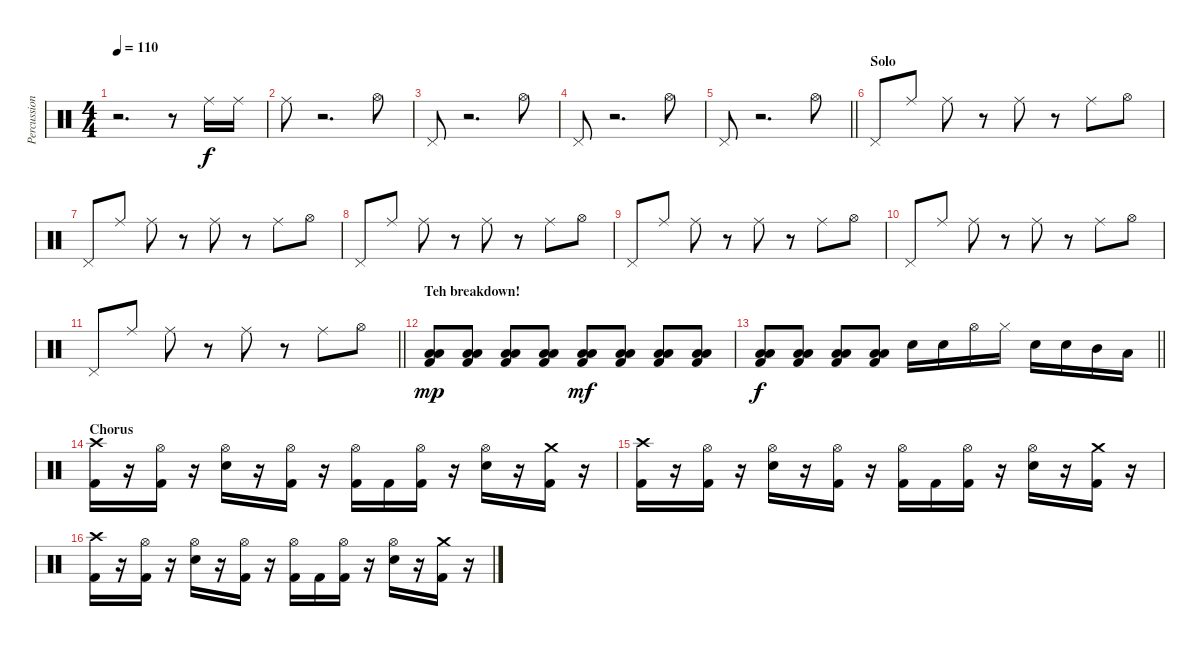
\track ("Percussion" "Percussion") {instrument percussion}
\staff {score}
\articulation defaults
\ts (4 4)
\tempo 110
\clef neutral
\ks c
r.2{d dy f} r.8 "Ride (middle)".16 "Ride (middle)".16 |
"Ride (middle)".8 r.2{d} "Hi-Hat (open)".8 |
"Pedal Hi-Hat (hit)".8 r.2{d} "Hi-Hat (open)".8 |
"Pedal Hi-Hat (hit)".8 r.2{d} "Hi-Hat (open)".8 |
\barLineRight lightlight "Pedal Hi-Hat (hit)".8
r.2{d} "Hi-Hat (open)".8 |
\section ("" "Solo")
"Pedal Hi-Hat (hit)".8 "Ride (middle)".8 "Ride (middle)".8 r.8 "Ride (middle)".8 r.8 "Ride (middle)".8 "Hi-Hat (open)".8 |
"Pedal Hi-Hat (hit)".8 "Ride (middle)".8 "Ride (middle)".8 r.8 "Ride (middle)".8 r.8 "Ride (middle)".8 "Hi-Hat (open)".8 |
"Pedal Hi-Hat (hit)".8 "Ride (middle)".8 "Ride (middle)".8 r.8 "Ride (middle)".8 r.8 "Ride (middle)".8 "Hi-Hat (open)".8 |
"Pedal Hi-Hat (hit)".8 "Ride (middle)".8 "Ride (middle)".8 r.8 "Ride (middle)".8 r.8 "Ride (middle)".8 "Hi-Hat (open)".8 |
"Pedal Hi-Hat (hit)".8 "Ride (middle)".8 "Ride (middle)".8 r.8 "Ride (middle)".8 r.8 "Ride (middle)".8 "Hi-Hat (open)".8 |
\barLineRight lightlight "Pedal Hi-Hat (hit)".8 "Ride (middle)".8 "Ride (middle)".8
r.8 "Ride (middle)".8 r.8 "Ride (middle)".8 "Hi-Hat (open)".8 |
\section ("" "Teh breakdown!")
("Low Floor Tom (hit)" "Low Tom (hit)" "Kick (hit) 2").8{dy mp} ("Low Floor Tom (hit)" "Low Tom (hit)" "Kick (hit) 2").8 ("Low Floor Tom (hit)" "Low Tom (hit)" "Kick (hit) 2").8 ("Low Floor Tom (hit)" "Low Tom (hit)" "Kick (hit) 2").8 ("Low Floor Tom (hit)" "Low Tom (hit)" "Kick (hit) 2").8{dy mf} ("Low Floor Tom (hit)" "Low Tom (hit)" "Kick (hit) 2").8 ("Low Floor Tom (hit)" "Low Tom (hit)" "Kick (hit) 2").8 ("Low Floor Tom (hit)" "Low Tom (hit)" "Kick (hit) 2").8 |
\barLineRight lightlight
("Low Floor Tom (hit)" "Low Tom (hit)" "Kick (hit) 2").8{dy f} ("Low Floor Tom (hit)" "Low Tom (hit)" "Kick (hit) 2").8 ("Low Floor Tom (hit)" "Low Tom (hit)" "Kick (hit) 2").8 ("Low Floor Tom (hit)" "Low Tom (hit)" "Kick (hit) 2").8 "Snare (hit) 2".16 "Snare (hit) 2".16 "Hi-Hat (open)".16 "Hi-Hat (closed)".16 "Snare (hit) 2".16 "Snare (hit) 2".16 "Mid Tom (hit)".16 "Low Tom (hit)".16 |
\section ("" "Chorus")
("Crash high (hit)" "Kick (hit) 2").16 r.16 ("Hi-Hat (open)" "Kick (hit) 2").16 r.16 ("Hi-Hat (open)" "Snare (hit) 2").16 r.16 ("Hi-Hat (open)" "Kick (hit) 2").16 r.16 ("Hi-Hat (open)" "Kick (hit) 2").16 "Kick (hit) 2".16 ("Hi-Hat (open)" "Kick (hit) 2").16 r.16 ("Hi-Hat (open)" "Snare (hit) 2").16 r.16 ("Crash medium (hit)" "Kick (hit) 2").16 r.16 |
("Crash high (hit)" "Kick (hit) 2").16 r.16 ("Hi-Hat (open)" "Kick (hit) 2").16 r.16 ("Hi-Hat (open)" "Snare (hit) 2").16 r.16 ("Hi-Hat (open)" "Kick (hit) 2").16 r.16 ("Hi-Hat (open)" "Kick (hit) 2").16 "Kick (hit) 2".16 ("Hi-Hat (open)" "Kick (hit) 2").16 r.16 ("Hi-Hat (open)" "Snare (hit) 2").16 r.16 ("Crash medium (hit)" "Kick (hit) 2").16 r.16 |
("Crash high (hit)" "Kick (hit) 2").16 r.16 ("Hi-Hat (open)" "Kick (hit) 2").16 r.16 ("Hi-Hat (open)" "Snare (hit) 2").16 r.16 ("Hi-Hat (open)" "Kick (hit) 2").16 r.16 ("Hi-Hat (open)" "Kick (hit) 2").16 "Kick (hit) 2".16 ("Hi-Hat (open)" "Kick (hit) 2").16 r.16 ("Hi-Hat (open)" "Snare (hit) 2").16 r.16 ("Crash medium (hit)" "Kick (hit) 2").16 r.16
